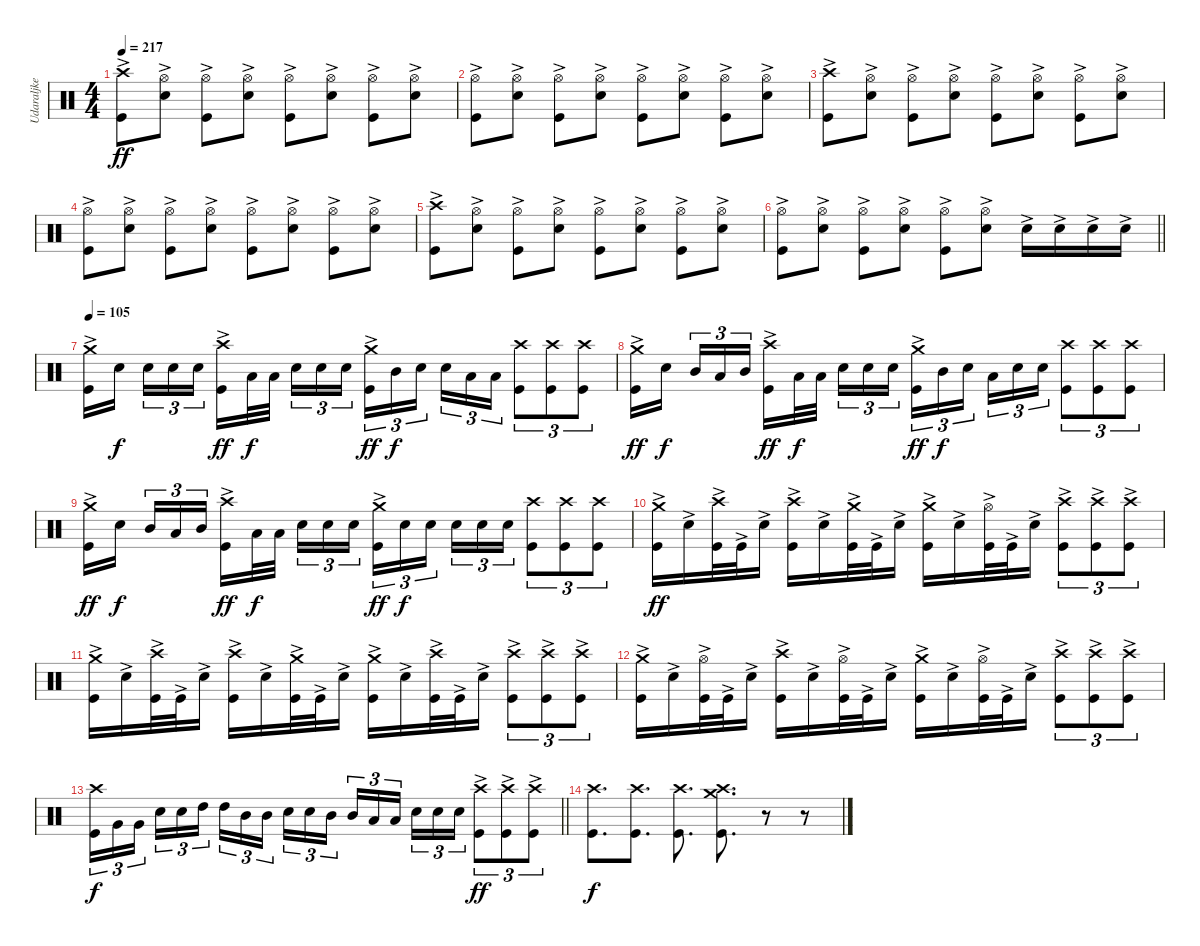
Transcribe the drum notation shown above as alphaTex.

\track ("Udaraljke" "Udaraljke") {instrument percussion}
\staff {score}
\articulation defaults
\ts (4 4)
\tempo 217
\clef neutral
\ks c
("Kick (hit)"{ac} "Crash high (hit)"{ac}).8{dy ff} ("Snare (hit) 2"{ac} "Hi-Hat (open)").8 ("Kick (hit)"{ac} "Hi-Hat (open)").8 ("Snare (hit) 2"{ac} "Hi-Hat (open)").8 ("Kick (hit)"{ac} "Hi-Hat (open)").8 ("Snare (hit) 2"{ac} "Hi-Hat (open)").8 ("Kick (hit)"{ac} "Hi-Hat (open)").8 ("Snare (hit) 2"{ac} "Hi-Hat (open)").8 |
("Kick (hit)"{ac} "Hi-Hat (open)"{ac}).8 ("Snare (hit) 2"{ac} "Hi-Hat (open)").8 ("Kick (hit)"{ac} "Hi-Hat (open)").8 ("Snare (hit) 2"{ac} "Hi-Hat (open)").8 ("Kick (hit)"{ac} "Hi-Hat (open)").8 ("Snare (hit) 2"{ac} "Hi-Hat (open)").8 ("Kick (hit)"{ac} "Hi-Hat (open)").8 ("Snare (hit) 2"{ac} "Hi-Hat (open)").8 |
("Kick (hit)"{ac} "Crash high (hit)"{ac}).8 ("Snare (hit) 2"{ac} "Hi-Hat (open)").8 ("Kick (hit)"{ac} "Hi-Hat (open)").8 ("Snare (hit) 2"{ac} "Hi-Hat (open)").8 ("Kick (hit)"{ac} "Hi-Hat (open)").8 ("Snare (hit) 2"{ac} "Hi-Hat (open)").8 ("Kick (hit)"{ac} "Hi-Hat (open)").8 ("Snare (hit) 2"{ac} "Hi-Hat (open)").8 |
("Kick (hit)"{ac} "Hi-Hat (open)"{ac}).8 ("Snare (hit) 2"{ac} "Hi-Hat (open)").8 ("Kick (hit)"{ac} "Hi-Hat (open)").8 ("Snare (hit) 2"{ac} "Hi-Hat (open)").8 ("Kick (hit)"{ac} "Hi-Hat (open)").8 ("Snare (hit) 2"{ac} "Hi-Hat (open)").8 ("Kick (hit)"{ac} "Hi-Hat (open)").8 ("Snare (hit) 2"{ac} "Hi-Hat (open)").8 |
("Kick (hit)"{ac} "Crash high (hit)"{ac}).8 ("Snare (hit) 2"{ac} "Hi-Hat (open)").8 ("Kick (hit)"{ac} "Hi-Hat (open)").8 ("Snare (hit) 2"{ac} "Hi-Hat (open)").8 ("Kick (hit)"{ac} "Hi-Hat (open)").8 ("Snare (hit) 2"{ac} "Hi-Hat (open)").8 ("Kick (hit)"{ac} "Hi-Hat (open)").8 ("Snare (hit) 2"{ac} "Hi-Hat (open)").8 |
\barLineRight lightlight
("Kick (hit)"{ac} "Hi-Hat (open)"{ac}).8 ("Snare (hit) 2"{ac} "Hi-Hat (open)").8 ("Kick (hit)"{ac} "Hi-Hat (open)").8 ("Snare (hit) 2"{ac} "Hi-Hat (open)").8 ("Kick (hit)"{ac} "Hi-Hat (open)").8 ("Snare (hit) 2"{ac} "Hi-Hat (open)").8 "Snare (hit) 2"{ac}.16 "Snare (hit) 2"{ac}.16 "Snare (hit) 2"{ac}.16 "Snare (hit) 2"{ac}.16 |
\section ("" "")
\tempo 105
("Kick (hit)"{ac} "Crash medium (hit)").16 "Snare (hit) 2".16{dy f beam splitsecondary} "Snare (hit) 2".16{tu (3 2)} "Snare (hit) 2".16{tu (3 2)} "Snare (hit) 2".16{tu (3 2)} ("Kick (hit)"{ac} "Crash high (hit)").16{dy ff} "Low Tom (hit)".32{dy f} "Low Tom (hit)".32{beam splitsecondary} "Snare (hit) 2".16{tu (3 2)} "Snare (hit) 2".16{tu (3 2)} "Snare (hit) 2".16{tu (3 2)} ("Kick (hit)"{ac} "Crash medium (hit)").16{tu (3 2) dy ff} "Mid Tom (hit)".16{tu (3 2) dy f} "Snare (hit) 2".16{tu (3 2) beam splitsecondary} "Snare (hit) 2".16{tu (3 2)} "Low Tom (hit)".16{tu (3 2)} "Low Tom (hit)".16{tu (3 2)} ("Kick (hit)" "Crash high (hit)").8{tu (3 2)} ("Kick (hit)" "Crash high (hit)").8{tu (3 2)} ("Kick (hit)" "Crash high (hit)").8{tu (3 2)} |
("Kick (hit)"{ac} "Crash medium (hit)").16{dy ff} "Snare (hit) 2".16{dy f beam splitsecondary} "Mid Tom (hit)".16{tu (3 2)} "Low Tom (hit)".16{tu (3 2)} "Mid Tom (hit)".16{tu (3 2)} ("Kick (hit)"{ac} "Crash high (hit)").16{dy ff} "Low Tom (hit)".32{dy f} "Low Tom (hit)".32{beam splitsecondary} "Snare (hit) 2".16{tu (3 2)} "Snare (hit) 2".16{tu (3 2)} "Snare (hit) 2".16{tu (3 2)} ("Kick (hit)"{ac} "Crash medium (hit)").16{tu (3 2) dy ff} "Mid Tom (hit)".16{tu (3 2) dy f} "Snare (hit) 2".16{tu (3 2) beam splitsecondary} "Low Tom (hit)".16{tu (3 2)} "Snare (hit) 2".16{tu (3 2)} "Snare (hit) 2".16{tu (3 2)} ("Kick (hit)" "Crash high (hit)").8{tu (3 2)} ("Kick (hit)" "Crash high (hit)").8{tu (3 2)} ("Kick (hit)" "Crash high (hit)").8{tu (3 2)} |
("Kick (hit)"{ac} "Crash medium (hit)").16{dy ff} "Snare (hit) 2".16{dy f beam splitsecondary} "Mid Tom (hit)".16{tu (3 2)} "Low Tom (hit)".16{tu (3 2)} "Mid Tom (hit)".16{tu (3 2)} ("Kick (hit)"{ac} "Crash high (hit)").16{dy ff} "Low Tom (hit)".32{dy f} "Low Tom (hit)".32{beam splitsecondary} "Snare (hit) 2".16{tu (3 2)} "Snare (hit) 2".16{tu (3 2)} "Snare (hit) 2".16{tu (3 2)} ("Kick (hit)"{ac} "Crash medium (hit)").16{tu (3 2) dy ff} "Snare (hit) 2".16{tu (3 2) dy f} "Snare (hit) 2".16{tu (3 2) beam splitsecondary} "Snare (hit) 2".16{tu (3 2)} "Snare (hit) 2".16{tu (3 2)} "Snare (hit) 2".16{tu (3 2)} ("Kick (hit)" "Crash high (hit)").8{tu (3 2)} ("Kick (hit)" "Crash high (hit)").8{tu (3 2)} ("Kick (hit)" "Crash high (hit)").8{tu (3 2)} |
("Kick (hit)"{ac} "Crash medium (hit)").16{dy ff} "Snare (hit) 2"{ac}.16 ("Kick (hit)"{ac} "Crash high (hit)").32 "Kick (hit)"{ac}.32 "Snare (hit) 2"{ac}.16 ("Kick (hit)"{ac} "Crash high (hit)").16 "Snare (hit) 2"{ac}.16 ("Kick (hit)"{ac} "Crash medium (hit)").32 "Kick (hit)"{ac}.32 "Snare (hit) 2"{ac}.16 ("Kick (hit)"{ac} "Crash medium (hit)").16 "Snare (hit) 2"{ac}.16 ("Kick (hit)"{ac} "Hi-Hat (open)").32 "Kick (hit)"{ac}.32 "Snare (hit) 2"{ac}.16 ("Kick (hit)"{ac} "Crash high (hit)").8{tu (3 2)} ("Kick (hit)"{ac} "Crash high (hit)").8{tu (3 2)} ("Kick (hit)"{ac} "Crash high (hit)").8{tu (3 2)} |
("Kick (hit)"{ac} "Crash medium (hit)").16 "Snare (hit) 2"{ac}.16 ("Kick (hit)"{ac} "Crash high (hit)").32 "Kick (hit)"{ac}.32 "Snare (hit) 2"{ac}.16 ("Kick (hit)"{ac} "Crash high (hit)").16 "Snare (hit) 2"{ac}.16 ("Kick (hit)"{ac} "Crash medium (hit)").32 "Kick (hit)"{ac}.32 "Snare (hit) 2"{ac}.16 ("Kick (hit)"{ac} "Crash medium (hit)").16 "Snare (hit) 2"{ac}.16 ("Kick (hit)"{ac} "Crash high (hit)").32 "Kick (hit)"{ac}.32 "Snare (hit) 2"{ac}.16 ("Kick (hit)"{ac} "Crash high (hit)").8{tu (3 2)} ("Kick (hit)"{ac} "Crash high (hit)").8{tu (3 2)} ("Kick (hit)"{ac} "Crash high (hit)").8{tu (3 2)} |
("Kick (hit)"{ac} "Crash medium (hit)").16 "Snare (hit) 2"{ac}.16 ("Kick (hit)"{ac} "Hi-Hat (open)").32 "Kick (hit)"{ac}.32 "Snare (hit) 2"{ac}.16 ("Kick (hit)"{ac} "Crash high (hit)").16 "Snare (hit) 2"{ac}.16 ("Kick (hit)"{ac} "Hi-Hat (open)").32 "Kick (hit)"{ac}.32 "Snare (hit) 2"{ac}.16 ("Kick (hit)"{ac} "Crash medium (hit)").16 "Snare (hit) 2"{ac}.16 ("Kick (hit)"{ac} "Hi-Hat (open)").32 "Kick (hit)"{ac}.32 "Snare (hit) 2"{ac}.16 ("Kick (hit)"{ac} "Crash high (hit)").8{tu (3 2)} ("Kick (hit)"{ac} "Crash high (hit)").8{tu (3 2)} ("Kick (hit)"{ac} "Crash high (hit)").8{tu (3 2)} |
\barLineRight lightlight
("Kick (hit)" "Crash high (hit)").16{tu (3 2) dy f} "Very Low Tom (hit)".16{tu (3 2)} "Very Low Tom (hit)".16{tu (3 2) beam splitsecondary} "Snare (hit) 2".16{tu (3 2)} "Snare (hit) 2".16{tu (3 2)} "High Tom (hit)".16{tu (3 2)} "High Tom (hit)".16{tu (3 2)} "Mid Tom (hit)".16{tu (3 2)} "Mid Tom (hit)".16{tu (3 2) beam splitsecondary} "Snare (hit) 2".16{tu (3 2)} "Snare (hit) 2".16{tu (3 2)} "Mid Tom (hit)".16{tu (3 2)} "Mid Tom (hit)".16{tu (3 2)} "Low Tom (hit)".16{tu (3 2)} "Low Tom (hit)".16{tu (3 2) beam splitsecondary} "Snare (hit) 2".16{tu (3 2)} "Snare (hit) 2".16{tu (3 2)} "Snare (hit) 2".16{tu (3 2)} ("Kick (hit)"{ac} "Crash high (hit)").8{tu (3 2) dy ff} ("Kick (hit)"{ac} "Crash high (hit)").8{tu (3 2)} ("Kick (hit)"{ac} "Crash high (hit)").8{tu (3 2)} |
\section ("" "")
("Kick (hit)" "Crash high (hit)").8{d dy f} ("Kick (hit)" "Crash high (hit)").8{d} ("Kick (hit)" "Crash high (hit)").8{d} ("Kick (hit)" "Crash high (hit)" "Crash medium (hit)").8{d} r.8 r.8
